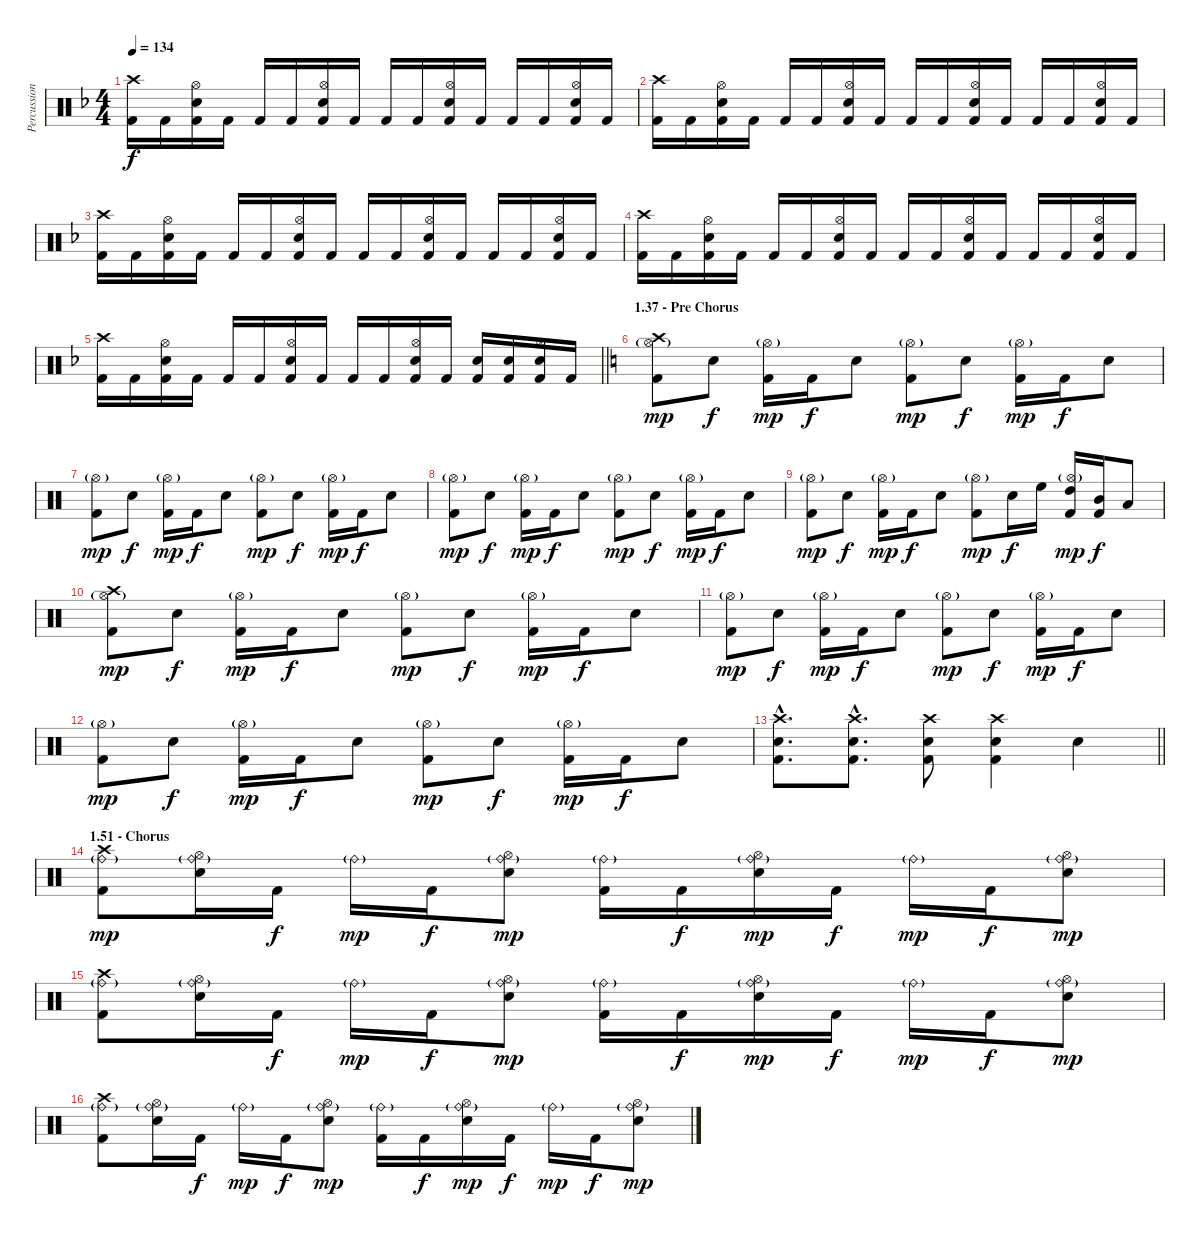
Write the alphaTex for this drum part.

\track ("Percussion" "Percussion") {instrument percussion}
\staff {score}
\articulation defaults
\ts (4 4)
\tempo 134
\clef neutral
\ks dminor
("Crash high (hit)" "Kick (hit) 2").16{dy f} "Kick (hit) 2".16 ("Hi-Hat (open)" "Electric Snare (hit)" "Kick (hit) 2").16 "Kick (hit) 2".16 "Kick (hit) 2".16 "Kick (hit) 2".16 ("Hi-Hat (open)" "Electric Snare (hit)" "Kick (hit) 2").16 "Kick (hit) 2".16 "Kick (hit) 2".16 "Kick (hit) 2".16 ("Hi-Hat (open)" "Electric Snare (hit)" "Kick (hit) 2").16 "Kick (hit) 2".16 "Kick (hit) 2".16 "Kick (hit) 2".16 ("Hi-Hat (open)" "Electric Snare (hit)" "Kick (hit) 2").16 "Kick (hit) 2".16 |
("Crash high (hit)" "Kick (hit) 2").16 "Kick (hit) 2".16 ("Hi-Hat (open)" "Electric Snare (hit)" "Kick (hit) 2").16 "Kick (hit) 2".16 "Kick (hit) 2".16 "Kick (hit) 2".16 ("Hi-Hat (open)" "Electric Snare (hit)" "Kick (hit) 2").16 "Kick (hit) 2".16 "Kick (hit) 2".16 "Kick (hit) 2".16 ("Hi-Hat (open)" "Electric Snare (hit)" "Kick (hit) 2").16 "Kick (hit) 2".16 "Kick (hit) 2".16 "Kick (hit) 2".16 ("Hi-Hat (open)" "Electric Snare (hit)" "Kick (hit) 2").16 "Kick (hit) 2".16 |
("Crash high (hit)" "Kick (hit) 2").16 "Kick (hit) 2".16 ("Hi-Hat (open)" "Electric Snare (hit)" "Kick (hit) 2").16 "Kick (hit) 2".16 "Kick (hit) 2".16 "Kick (hit) 2".16 ("Hi-Hat (open)" "Electric Snare (hit)" "Kick (hit) 2").16 "Kick (hit) 2".16 "Kick (hit) 2".16 "Kick (hit) 2".16 ("Hi-Hat (open)" "Electric Snare (hit)" "Kick (hit) 2").16 "Kick (hit) 2".16 "Kick (hit) 2".16 "Kick (hit) 2".16 ("Hi-Hat (open)" "Electric Snare (hit)" "Kick (hit) 2").16 "Kick (hit) 2".16 |
("Crash high (hit)" "Kick (hit) 2").16 "Kick (hit) 2".16 ("Hi-Hat (open)" "Electric Snare (hit)" "Kick (hit) 2").16 "Kick (hit) 2".16 "Kick (hit) 2".16 "Kick (hit) 2".16 ("Hi-Hat (open)" "Electric Snare (hit)" "Kick (hit) 2").16 "Kick (hit) 2".16 "Kick (hit) 2".16 "Kick (hit) 2".16 ("Hi-Hat (open)" "Electric Snare (hit)" "Kick (hit) 2").16 "Kick (hit) 2".16 "Kick (hit) 2".16 "Kick (hit) 2".16 ("Hi-Hat (open)" "Electric Snare (hit)" "Kick (hit) 2").16 "Kick (hit) 2".16 |
\barLineRight lightlight
("Crash high (hit)" "Kick (hit) 2").16 "Kick (hit) 2".16 ("Hi-Hat (open)" "Electric Snare (hit)" "Kick (hit) 2").16 "Kick (hit) 2".16 "Kick (hit) 2".16 "Kick (hit) 2".16 ("Hi-Hat (open)" "Electric Snare (hit)" "Kick (hit) 2").16 "Kick (hit) 2".16 "Kick (hit) 2".16 "Kick (hit) 2".16 ("Hi-Hat (open)" "Electric Snare (hit)" "Kick (hit) 2").16 "Kick (hit) 2".16 ("Electric Snare (hit)" "Kick (hit) 2").16 ("Electric Snare (hit)" "Kick (hit) 2").16 ("Hi-Hat (open)" "Electric Snare (hit)" "Kick (hit) 2").16 "Kick (hit) 2".16 |
\section ("" "1.37 - Pre Chorus")
\ks aminor
("Crash high (hit)" "Hi-Hat (open)"{g} "Kick (hit) 2").8{dy mp} "Electric Snare (hit)".8{dy f} ("Hi-Hat (open)"{g} "Kick (hit) 2").16{dy mp} "Kick (hit) 2".16{dy f} "Electric Snare (hit)".8 ("Hi-Hat (open)"{g} "Kick (hit) 2").8{dy mp} "Electric Snare (hit)".8{dy f} ("Hi-Hat (open)"{g} "Kick (hit) 2").16{dy mp} "Kick (hit) 2".16{dy f} "Electric Snare (hit)".8 |
("Hi-Hat (open)"{g} "Kick (hit) 2").8{dy mp} "Electric Snare (hit)".8{dy f} ("Hi-Hat (open)"{g} "Kick (hit) 2").16{dy mp} "Kick (hit) 2".16{dy f} "Electric Snare (hit)".8 ("Hi-Hat (open)"{g} "Kick (hit) 2").8{dy mp} "Electric Snare (hit)".8{dy f} ("Hi-Hat (open)"{g} "Kick (hit) 2").16{dy mp} "Kick (hit) 2".16{dy f} "Electric Snare (hit)".8 |
("Hi-Hat (open)"{g} "Kick (hit) 2").8{dy mp} "Electric Snare (hit)".8{dy f} ("Hi-Hat (open)"{g} "Kick (hit) 2").16{dy mp} "Kick (hit) 2".16{dy f} "Electric Snare (hit)".8 ("Hi-Hat (open)"{g} "Kick (hit) 2").8{dy mp} "Electric Snare (hit)".8{dy f} ("Hi-Hat (open)"{g} "Kick (hit) 2").16{dy mp} "Kick (hit) 2".16{dy f} "Electric Snare (hit)".8 |
("Hi-Hat (open)"{g} "Kick (hit) 2").8{dy mp} "Electric Snare (hit)".8{dy f} ("Hi-Hat (open)"{g} "Kick (hit) 2").16{dy mp} "Kick (hit) 2".16{dy f} "Electric Snare (hit)".8 ("Hi-Hat (open)"{g} "Kick (hit) 2").8{dy mp} "Electric Snare (hit)".16{dy f} "High Floor Tom (hit)".16 ("Hi-Hat (open)"{g} "High Tom (hit)" "Kick (hit) 2").16{dy mp} ("Mid Tom (hit)" "Kick (hit) 2").16{dy f} "Low Tom (hit)".8 |
("Crash high (hit)" "Hi-Hat (open)"{g} "Kick (hit) 2").8{dy mp} "Electric Snare (hit)".8{dy f} ("Hi-Hat (open)"{g} "Kick (hit) 2").16{dy mp} "Kick (hit) 2".16{dy f} "Electric Snare (hit)".8 ("Hi-Hat (open)"{g} "Kick (hit) 2").8{dy mp} "Electric Snare (hit)".8{dy f} ("Hi-Hat (open)"{g} "Kick (hit) 2").16{dy mp} "Kick (hit) 2".16{dy f} "Electric Snare (hit)".8 |
("Hi-Hat (open)"{g} "Kick (hit) 2").8{dy mp} "Electric Snare (hit)".8{dy f} ("Hi-Hat (open)"{g} "Kick (hit) 2").16{dy mp} "Kick (hit) 2".16{dy f} "Electric Snare (hit)".8 ("Hi-Hat (open)"{g} "Kick (hit) 2").8{dy mp} "Electric Snare (hit)".8{dy f} ("Hi-Hat (open)"{g} "Kick (hit) 2").16{dy mp} "Kick (hit) 2".16{dy f} "Electric Snare (hit)".8 |
("Hi-Hat (open)"{g} "Kick (hit) 2").8{dy mp} "Electric Snare (hit)".8{dy f} ("Hi-Hat (open)"{g} "Kick (hit) 2").16{dy mp} "Kick (hit) 2".16{dy f} "Electric Snare (hit)".8 ("Hi-Hat (open)"{g} "Kick (hit) 2").8{dy mp} "Electric Snare (hit)".8{dy f} ("Hi-Hat (open)"{g} "Kick (hit) 2").16{dy mp} "Kick (hit) 2".16{dy f} "Electric Snare (hit)".8 |
\barLineRight lightlight
("Crash high (hit)"{hac} "Electric Snare (hit)"{hac} "Kick (hit) 2"{hac}).8{d} ("Crash high (hit)"{hac} "Electric Snare (hit)"{hac} "Kick (hit) 2"{hac}).8{d} ("Crash high (hit)" "Electric Snare (hit)" "Kick (hit) 2").8 ("Crash high (hit)" "Electric Snare (hit)" "Kick (hit) 2").4 "Electric Snare (hit)".4 |
\section ("" "1.51 - Chorus")
("Crash high (hit)" "Ride (bell)"{g} "Kick (hit) 2").8{dy mp} ("Hi-Hat (open)" "Ride (bell)"{g} "Electric Snare (hit)").16 "Kick (hit) 2".16{dy f} "Ride (bell)"{g}.16{dy mp} "Kick (hit) 2".16{dy f} ("Hi-Hat (open)" "Ride (bell)"{g} "Electric Snare (hit)").8{dy mp} ("Ride (bell)"{g} "Kick (hit) 2").16 "Kick (hit) 2".16{dy f} ("Hi-Hat (open)" "Ride (bell)"{g} "Electric Snare (hit)").16{dy mp} "Kick (hit) 2".16{dy f} "Ride (bell)"{g}.16{dy mp} "Kick (hit) 2".16{dy f} ("Hi-Hat (open)" "Ride (bell)"{g} "Electric Snare (hit)").8{dy mp} |
("Crash high (hit)" "Ride (bell)"{g} "Kick (hit) 2").8 ("Hi-Hat (open)" "Ride (bell)"{g} "Electric Snare (hit)").16 "Kick (hit) 2".16{dy f} "Ride (bell)"{g}.16{dy mp} "Kick (hit) 2".16{dy f} ("Hi-Hat (open)" "Ride (bell)"{g} "Electric Snare (hit)").8{dy mp} ("Ride (bell)"{g} "Kick (hit) 2").16 "Kick (hit) 2".16{dy f} ("Hi-Hat (open)" "Ride (bell)"{g} "Electric Snare (hit)").16{dy mp} "Kick (hit) 2".16{dy f} "Ride (bell)"{g}.16{dy mp} "Kick (hit) 2".16{dy f} ("Hi-Hat (open)" "Ride (bell)"{g} "Electric Snare (hit)").8{dy mp} |
("Crash high (hit)" "Ride (bell)"{g} "Kick (hit) 2").8 ("Hi-Hat (open)" "Ride (bell)"{g} "Electric Snare (hit)").16 "Kick (hit) 2".16{dy f} "Ride (bell)"{g}.16{dy mp} "Kick (hit) 2".16{dy f} ("Hi-Hat (open)" "Ride (bell)"{g} "Electric Snare (hit)").8{dy mp} ("Ride (bell)"{g} "Kick (hit) 2").16 "Kick (hit) 2".16{dy f} ("Hi-Hat (open)" "Ride (bell)"{g} "Electric Snare (hit)").16{dy mp} "Kick (hit) 2".16{dy f} "Ride (bell)"{g}.16{dy mp} "Kick (hit) 2".16{dy f} ("Hi-Hat (open)" "Ride (bell)"{g} "Electric Snare (hit)").8{dy mp}
